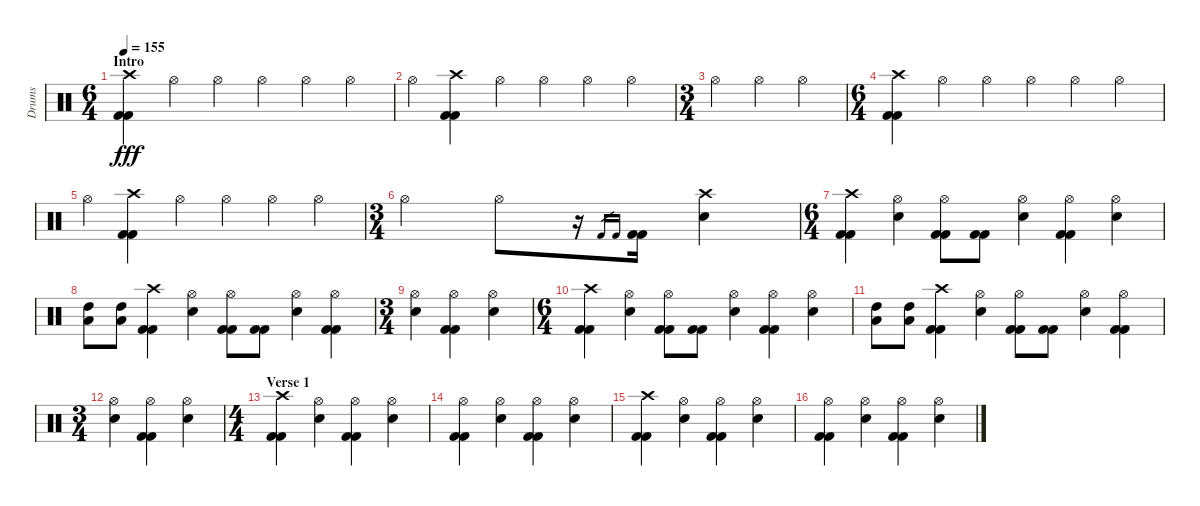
\track ("Drums" "Drums") {instrument percussion}
\staff {score}
\articulation defaults
\ts (6 4)
\section ("" "Intro")
\tempo 155
\clef neutral
\ks c
("Crash high (hit)" "Kick (hit) 2" "Kick (hit) 2").4{dy fff} "Hi-Hat (open)".4 "Hi-Hat (open)".4 "Hi-Hat (open)".4 "Hi-Hat (open)".4 "Hi-Hat (open)".4 |
"Hi-Hat (open)".4 ("Crash high (hit)" "Kick (hit) 2" "Kick (hit) 2").4 "Hi-Hat (open)".4 "Hi-Hat (open)".4 "Hi-Hat (open)".4 "Hi-Hat (open)".4 |
\ts (3 4)
"Hi-Hat (open)".4 "Hi-Hat (open)".4 "Hi-Hat (open)".4 |
\ts (6 4)
("Crash high (hit)" "Kick (hit) 2" "Kick (hit) 2").4 "Hi-Hat (open)".4 "Hi-Hat (open)".4 "Hi-Hat (open)".4 "Hi-Hat (open)".4 "Hi-Hat (open)".4 |
"Hi-Hat (open)".4 ("Crash high (hit)" "Kick (hit) 2" "Kick (hit) 2").4 "Hi-Hat (open)".4 "Hi-Hat (open)".4 "Hi-Hat (open)".4 "Hi-Hat (open)".4 |
\ts (3 4)
"Hi-Hat (open)".4 "Hi-Hat (open)".8 r.16 "Kick (hit) 2".16{gr} "Kick (hit) 2".16{gr} ("Kick (hit) 2" "Kick (hit) 2").16 ("Crash high (hit)" "Snare (hit) 2").4 |
\ts (6 4)
("Crash high (hit)" "Kick (hit) 2" "Kick (hit) 2").4 ("Hi-Hat (open)" "Snare (hit) 2").4 ("Hi-Hat (open)" "Kick (hit) 2" "Kick (hit) 2").8 ("Kick (hit) 2" "Kick (hit) 2").8 ("Hi-Hat (open)" "Snare (hit) 2").4 ("Hi-Hat (open)" "Kick (hit) 2" "Kick (hit) 2").4 ("Hi-Hat (open)" "Snare (hit) 2").4 |
("High Tom (hit)" "Low Tom (hit)").8 ("High Tom (hit)" "Low Tom (hit)").8 ("Crash high (hit)" "Kick (hit) 2" "Kick (hit) 2").4 ("Hi-Hat (open)" "Snare (hit) 2").4 ("Hi-Hat (open)" "Kick (hit) 2" "Kick (hit) 2").8 ("Kick (hit) 2" "Kick (hit) 2").8 ("Hi-Hat (open)" "Snare (hit) 2").4 ("Hi-Hat (open)" "Kick (hit) 2" "Kick (hit) 2").4 |
\ts (3 4)
("Hi-Hat (open)" "Snare (hit) 2").4 ("Hi-Hat (open)" "Kick (hit) 2" "Kick (hit) 2").4 ("Hi-Hat (open)" "Snare (hit) 2").4 |
\ts (6 4)
("Crash high (hit)" "Kick (hit) 2" "Kick (hit) 2").4 ("Hi-Hat (open)" "Snare (hit) 2").4 ("Hi-Hat (open)" "Kick (hit) 2" "Kick (hit) 2").8 ("Kick (hit) 2" "Kick (hit) 2").8 ("Hi-Hat (open)" "Snare (hit) 2").4 ("Hi-Hat (open)" "Kick (hit) 2" "Kick (hit) 2").4 ("Hi-Hat (open)" "Snare (hit) 2").4 |
("High Tom (hit)" "Low Tom (hit)").8 ("High Tom (hit)" "Low Tom (hit)").8 ("Crash high (hit)" "Kick (hit) 2" "Kick (hit) 2").4 ("Hi-Hat (open)" "Snare (hit) 2").4 ("Hi-Hat (open)" "Kick (hit) 2" "Kick (hit) 2").8 ("Kick (hit) 2" "Kick (hit) 2").8 ("Hi-Hat (open)" "Snare (hit) 2").4 ("Hi-Hat (open)" "Kick (hit) 2" "Kick (hit) 2").4 |
\ts (3 4)
("Hi-Hat (open)" "Snare (hit) 2").4 ("Hi-Hat (open)" "Kick (hit) 2" "Kick (hit) 2").4 ("Hi-Hat (open)" "Snare (hit) 2").4 |
\ts (4 4)
\section ("" "Verse 1")
("Crash high (hit)" "Kick (hit) 2" "Kick (hit) 2").4 ("Hi-Hat (open)" "Snare (hit) 2").4 ("Hi-Hat (open)" "Kick (hit) 2" "Kick (hit) 2").4 ("Hi-Hat (open)" "Snare (hit) 2").4 |
("Hi-Hat (open)" "Kick (hit) 2" "Kick (hit) 2").4 ("Hi-Hat (open)" "Snare (hit) 2").4 ("Hi-Hat (open)" "Kick (hit) 2" "Kick (hit) 2").4 ("Hi-Hat (open)" "Snare (hit) 2").4 |
("Crash high (hit)" "Kick (hit) 2" "Kick (hit) 2").4 ("Hi-Hat (open)" "Snare (hit) 2").4 ("Hi-Hat (open)" "Kick (hit) 2" "Kick (hit) 2").4 ("Hi-Hat (open)" "Snare (hit) 2").4 |
("Hi-Hat (open)" "Kick (hit) 2" "Kick (hit) 2").4 ("Hi-Hat (open)" "Snare (hit) 2").4 ("Hi-Hat (open)" "Kick (hit) 2" "Kick (hit) 2").4 ("Hi-Hat (open)" "Snare (hit) 2").4
